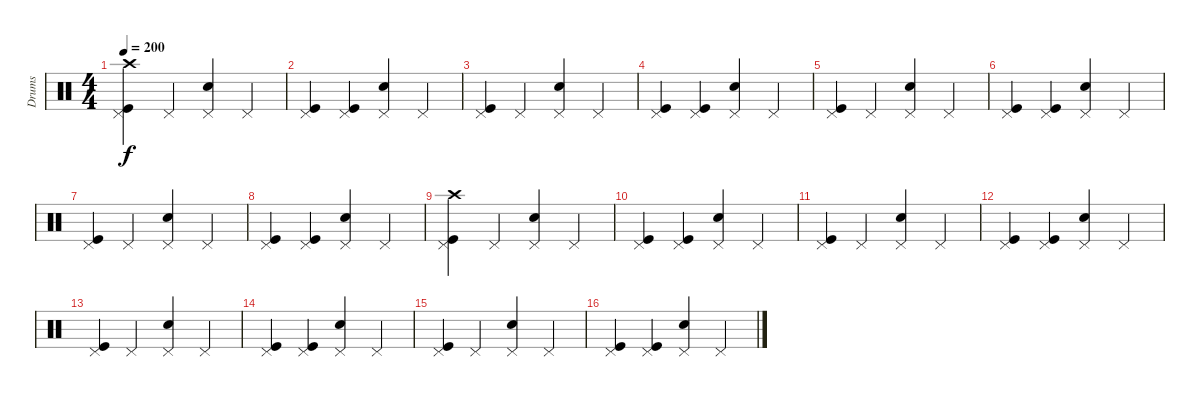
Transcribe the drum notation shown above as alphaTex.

\track ("Drums" "Drums") {instrument percussion}
\staff {score}
\articulation defaults
\ts (4 4)
\tempo 200
\clef neutral
\ks c
("Crash high (hit)" "Pedal Hi-Hat (hit)" "Kick (hit)").4{dy f} "Pedal Hi-Hat (hit)".4 ("Snare (hit) 2" "Pedal Hi-Hat (hit)").4 "Pedal Hi-Hat (hit)".4 |
("Pedal Hi-Hat (hit)" "Kick (hit)").4 ("Pedal Hi-Hat (hit)" "Kick (hit)").4 ("Snare (hit) 2" "Pedal Hi-Hat (hit)").4 "Pedal Hi-Hat (hit)".4 |
("Pedal Hi-Hat (hit)" "Kick (hit)").4 "Pedal Hi-Hat (hit)".4 ("Snare (hit) 2" "Pedal Hi-Hat (hit)").4 "Pedal Hi-Hat (hit)".4 |
("Pedal Hi-Hat (hit)" "Kick (hit)").4 ("Pedal Hi-Hat (hit)" "Kick (hit)").4 ("Snare (hit) 2" "Pedal Hi-Hat (hit)").4 "Pedal Hi-Hat (hit)".4 |
("Pedal Hi-Hat (hit)" "Kick (hit)").4 "Pedal Hi-Hat (hit)".4 ("Snare (hit) 2" "Pedal Hi-Hat (hit)").4 "Pedal Hi-Hat (hit)".4 |
("Pedal Hi-Hat (hit)" "Kick (hit)").4 ("Pedal Hi-Hat (hit)" "Kick (hit)").4 ("Snare (hit) 2" "Pedal Hi-Hat (hit)").4 "Pedal Hi-Hat (hit)".4 |
("Pedal Hi-Hat (hit)" "Kick (hit)").4 "Pedal Hi-Hat (hit)".4 ("Snare (hit) 2" "Pedal Hi-Hat (hit)").4 "Pedal Hi-Hat (hit)".4 |
("Pedal Hi-Hat (hit)" "Kick (hit)").4 ("Pedal Hi-Hat (hit)" "Kick (hit)").4 ("Snare (hit) 2" "Pedal Hi-Hat (hit)").4 "Pedal Hi-Hat (hit)".4 |
("Crash high (hit)" "Pedal Hi-Hat (hit)" "Kick (hit)").4 "Pedal Hi-Hat (hit)".4 ("Snare (hit) 2" "Pedal Hi-Hat (hit)").4 "Pedal Hi-Hat (hit)".4 |
("Pedal Hi-Hat (hit)" "Kick (hit)").4 ("Pedal Hi-Hat (hit)" "Kick (hit)").4 ("Snare (hit) 2" "Pedal Hi-Hat (hit)").4 "Pedal Hi-Hat (hit)".4 |
("Pedal Hi-Hat (hit)" "Kick (hit)").4 "Pedal Hi-Hat (hit)".4 ("Snare (hit) 2" "Pedal Hi-Hat (hit)").4 "Pedal Hi-Hat (hit)".4 |
("Pedal Hi-Hat (hit)" "Kick (hit)").4 ("Pedal Hi-Hat (hit)" "Kick (hit)").4 ("Snare (hit) 2" "Pedal Hi-Hat (hit)").4 "Pedal Hi-Hat (hit)".4 |
("Pedal Hi-Hat (hit)" "Kick (hit)").4 "Pedal Hi-Hat (hit)".4 ("Snare (hit) 2" "Pedal Hi-Hat (hit)").4 "Pedal Hi-Hat (hit)".4 |
("Pedal Hi-Hat (hit)" "Kick (hit)").4 ("Pedal Hi-Hat (hit)" "Kick (hit)").4 ("Snare (hit) 2" "Pedal Hi-Hat (hit)").4 "Pedal Hi-Hat (hit)".4 |
("Pedal Hi-Hat (hit)" "Kick (hit)").4 "Pedal Hi-Hat (hit)".4 ("Snare (hit) 2" "Pedal Hi-Hat (hit)").4 "Pedal Hi-Hat (hit)".4 |
("Pedal Hi-Hat (hit)" "Kick (hit)").4 ("Pedal Hi-Hat (hit)" "Kick (hit)").4 ("Snare (hit) 2" "Pedal Hi-Hat (hit)").4 "Pedal Hi-Hat (hit)".4
